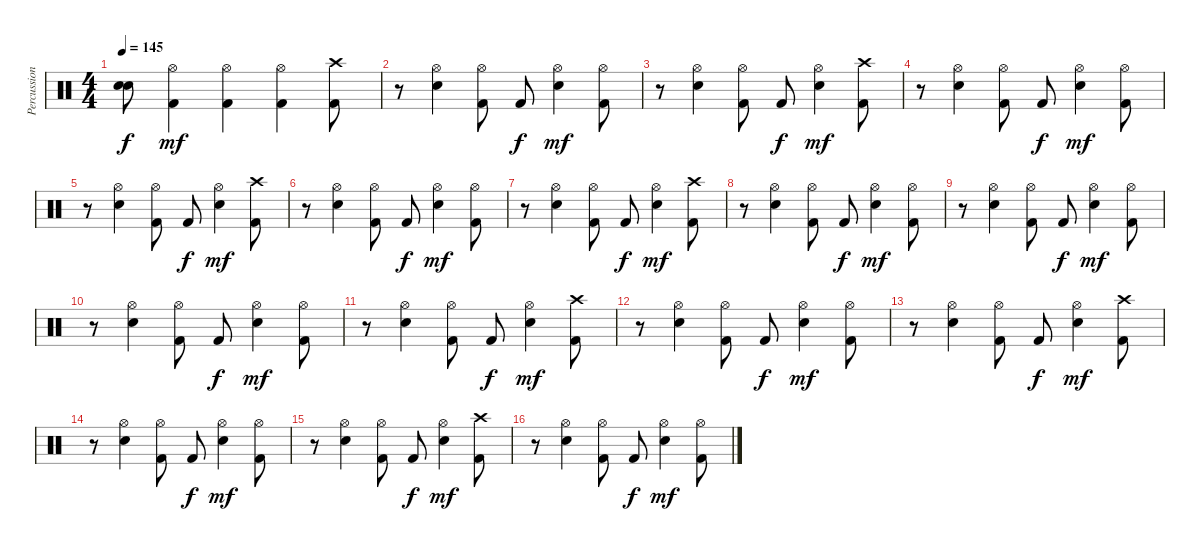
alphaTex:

\track ("Percussioni" "Percussion") {instrument percussion}
\staff {score}
\articulation defaults
\ts (4 4)
\tempo 145
\clef neutral
\ks c
("Snare (hit)"{t} "Snare (hit)"{t}).8{dy f} ("Kick (hit) 2" "Hi-Hat (open)").4{dy mf} ("Kick (hit) 2" "Hi-Hat (open)").4 ("Kick (hit) 2" "Hi-Hat (open)").4 ("Kick (hit) 2" "Crash high (hit)").8 |
r.8 ("Snare (hit) 2" "Hi-Hat (open)").4 ("Kick (hit) 2" "Hi-Hat (open)").8 "Kick (hit) 2".8{dy f} ("Snare (hit) 2" "Hi-Hat (open)").4{dy mf} ("Kick (hit) 2" "Hi-Hat (open)").8 |
r.8 ("Snare (hit) 2" "Hi-Hat (open)").4 ("Kick (hit) 2" "Hi-Hat (open)").8 "Kick (hit) 2".8{dy f} ("Snare (hit) 2" "Hi-Hat (open)").4{dy mf} ("Kick (hit) 2" "Crash high (hit)").8 |
r.8 ("Snare (hit) 2" "Hi-Hat (open)").4 ("Kick (hit) 2" "Hi-Hat (open)").8 "Kick (hit) 2".8{dy f} ("Snare (hit) 2" "Hi-Hat (open)").4{dy mf} ("Kick (hit) 2" "Hi-Hat (open)").8 |
r.8 ("Snare (hit) 2" "Hi-Hat (open)").4 ("Kick (hit) 2" "Hi-Hat (open)").8 "Kick (hit) 2".8{dy f} ("Snare (hit) 2" "Hi-Hat (open)").4{dy mf} ("Kick (hit) 2" "Crash high (hit)").8 |
r.8 ("Snare (hit) 2" "Hi-Hat (open)").4 ("Kick (hit) 2" "Hi-Hat (open)").8 "Kick (hit) 2".8{dy f} ("Snare (hit) 2" "Hi-Hat (open)").4{dy mf} ("Kick (hit) 2" "Hi-Hat (open)").8 |
r.8 ("Snare (hit) 2" "Hi-Hat (open)").4 ("Kick (hit) 2" "Hi-Hat (open)").8 "Kick (hit) 2".8{dy f} ("Snare (hit) 2" "Hi-Hat (open)").4{dy mf} ("Kick (hit) 2" "Crash high (hit)").8 |
r.8 ("Snare (hit) 2" "Hi-Hat (open)").4 ("Kick (hit) 2" "Hi-Hat (open)").8 "Kick (hit) 2".8{dy f} ("Snare (hit) 2" "Hi-Hat (open)").4{dy mf} ("Kick (hit) 2" "Hi-Hat (open)").8 |
r.8 ("Snare (hit) 2" "Hi-Hat (open)").4 ("Kick (hit) 2" "Hi-Hat (open)").8 "Kick (hit) 2".8{dy f} ("Snare (hit) 2" "Hi-Hat (open)").4{dy mf} ("Kick (hit) 2" "Hi-Hat (open)").8 |
r.8 ("Snare (hit) 2" "Hi-Hat (open)").4 ("Kick (hit) 2" "Hi-Hat (open)").8 "Kick (hit) 2".8{dy f} ("Snare (hit) 2" "Hi-Hat (open)").4{dy mf} ("Kick (hit) 2" "Hi-Hat (open)").8 |
r.8 ("Snare (hit) 2" "Hi-Hat (open)").4 ("Kick (hit) 2" "Hi-Hat (open)").8 "Kick (hit) 2".8{dy f} ("Snare (hit) 2" "Hi-Hat (open)").4{dy mf} ("Kick (hit) 2" "Crash high (hit)").8 |
r.8 ("Snare (hit) 2" "Hi-Hat (open)").4 ("Kick (hit) 2" "Hi-Hat (open)").8 "Kick (hit) 2".8{dy f} ("Snare (hit) 2" "Hi-Hat (open)").4{dy mf} ("Kick (hit) 2" "Hi-Hat (open)").8 |
r.8 ("Snare (hit) 2" "Hi-Hat (open)").4 ("Kick (hit) 2" "Hi-Hat (open)").8 "Kick (hit) 2".8{dy f} ("Snare (hit) 2" "Hi-Hat (open)").4{dy mf} ("Kick (hit) 2" "Crash high (hit)").8 |
r.8 ("Snare (hit) 2" "Hi-Hat (open)").4 ("Kick (hit) 2" "Hi-Hat (open)").8 "Kick (hit) 2".8{dy f} ("Snare (hit) 2" "Hi-Hat (open)").4{dy mf} ("Kick (hit) 2" "Hi-Hat (open)").8 |
r.8 ("Snare (hit) 2" "Hi-Hat (open)").4 ("Kick (hit) 2" "Hi-Hat (open)").8 "Kick (hit) 2".8{dy f} ("Snare (hit) 2" "Hi-Hat (open)").4{dy mf} ("Kick (hit) 2" "Crash high (hit)").8 |
r.8 ("Snare (hit) 2" "Hi-Hat (open)").4 ("Kick (hit) 2" "Hi-Hat (open)").8 "Kick (hit) 2".8{dy f} ("Snare (hit) 2" "Hi-Hat (open)").4{dy mf} ("Kick (hit) 2" "Hi-Hat (open)").8
